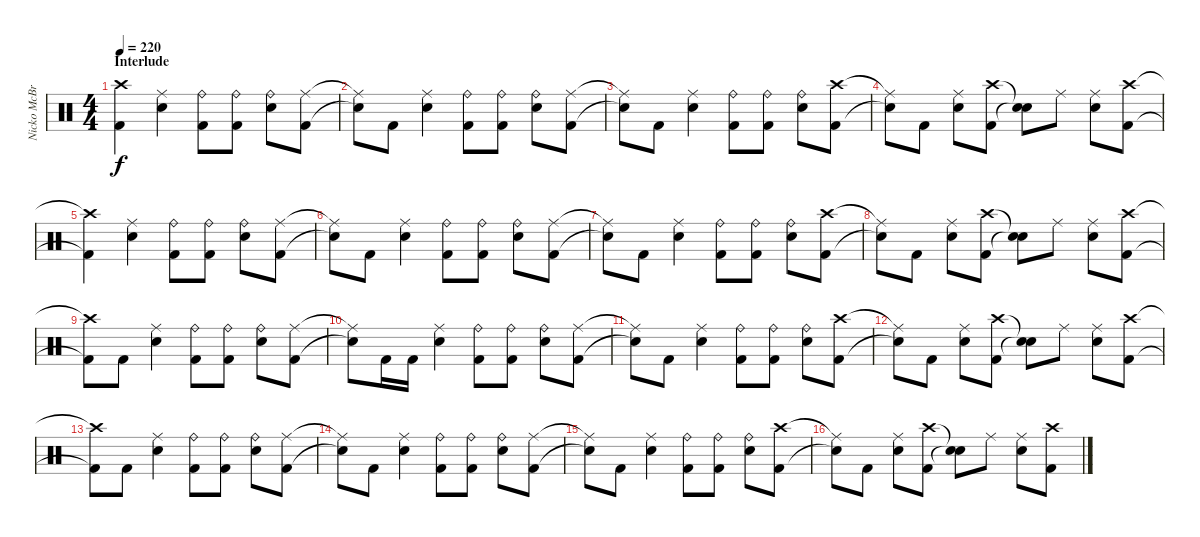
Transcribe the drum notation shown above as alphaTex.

\track ("Nicko McBrain" "Nicko McBr") {instrument percussion}
\staff {score}
\articulation defaults
\ts (4 4)
\section ("" "Interlude")
\tempo 220
\clef neutral
\ks c
("Crash high (hit)" "Kick (hit) 2").4{dy f} ("Ride (middle)" "Electric Snare (hit)").4 ("Ride (bell)" "Kick (hit) 2").8 ("Ride (bell)" "Kick (hit) 2").8 ("Ride (bell)" "Electric Snare (hit)").8 ("Ride (middle)" "Kick (hit) 2").8 |
("Ride (middle)"{t} "Snare (hit)"{t}).8 "Kick (hit) 2".8 ("Ride (middle)" "Electric Snare (hit)").4 ("Ride (bell)" "Kick (hit) 2").8 ("Ride (bell)" "Kick (hit) 2").8 ("Ride (bell)" "Electric Snare (hit)").8 ("Ride (middle)" "Kick (hit) 2").8 |
("Ride (middle)"{t} "Snare (hit)"{t}).8 "Kick (hit) 2".8 ("Ride (middle)" "Electric Snare (hit)").4 ("Ride (bell)" "Kick (hit) 2").8 ("Ride (bell)" "Kick (hit) 2").8 ("Ride (bell)" "Electric Snare (hit)").8 ("Crash high (hit)" "Kick (hit) 2").8 |
("Ride (middle)"{t} "Snare (hit)"{t}).8 "Kick (hit) 2".8 ("Ride (middle)" "Electric Snare (hit)").8 ("Crash high (hit)" "Kick (hit) 2").8 ("Snare (hit)"{t} "Snare (hit)"{t}).8 "Ride (middle)".8 ("Ride (middle)" "Electric Snare (hit)").8 ("Crash high (hit)" "Kick (hit) 2").8 |
("Crash high (hit)"{t} "Kick (hit) 2"{t}).4 ("Ride (middle)" "Electric Snare (hit)").4 ("Ride (bell)" "Kick (hit) 2").8 ("Ride (bell)" "Kick (hit) 2").8 ("Ride (bell)" "Electric Snare (hit)").8 ("Ride (middle)" "Kick (hit) 2").8 |
("Ride (middle)"{t} "Snare (hit)"{t}).8 "Kick (hit) 2".8 ("Ride (middle)" "Electric Snare (hit)").4 ("Ride (bell)" "Kick (hit) 2").8 ("Ride (bell)" "Kick (hit) 2").8 ("Ride (bell)" "Electric Snare (hit)").8 ("Ride (middle)" "Kick (hit) 2").8 |
("Ride (middle)"{t} "Snare (hit)"{t}).8 "Kick (hit) 2".8 ("Ride (middle)" "Electric Snare (hit)").4 ("Ride (bell)" "Kick (hit) 2").8 ("Ride (bell)" "Kick (hit) 2").8 ("Ride (bell)" "Electric Snare (hit)").8 ("Crash high (hit)" "Kick (hit) 2").8 |
("Ride (middle)"{t} "Snare (hit)"{t}).8 "Kick (hit) 2".8 ("Ride (middle)" "Electric Snare (hit)").8 ("Crash high (hit)" "Kick (hit) 2").8 ("Snare (hit)"{t} "Snare (hit)"{t}).8 "Ride (middle)".8 ("Ride (middle)" "Electric Snare (hit)").8 ("Crash high (hit)" "Kick (hit) 2").8 |
("Crash high (hit)"{t} "Kick (hit) 2"{t}).8 "Kick (hit) 2".8 ("Ride (middle)" "Electric Snare (hit)").4 ("Ride (bell)" "Kick (hit) 2").8 ("Ride (bell)" "Kick (hit) 2").8 ("Ride (bell)" "Electric Snare (hit)").8 ("Ride (middle)" "Kick (hit) 2").8 |
("Ride (middle)"{t} "Snare (hit)"{t}).8 "Kick (hit) 2".16 "Kick (hit) 2".16 ("Ride (middle)" "Electric Snare (hit)").4 ("Ride (bell)" "Kick (hit) 2").8 ("Ride (bell)" "Kick (hit) 2").8 ("Ride (bell)" "Electric Snare (hit)").8 ("Ride (middle)" "Kick (hit) 2").8 |
("Ride (middle)"{t} "Snare (hit)"{t}).8 "Kick (hit) 2".8 ("Ride (middle)" "Electric Snare (hit)").4 ("Ride (bell)" "Kick (hit) 2").8 ("Ride (bell)" "Kick (hit) 2").8 ("Ride (bell)" "Electric Snare (hit)").8 ("Crash high (hit)" "Kick (hit) 2").8 |
("Ride (middle)"{t} "Snare (hit)"{t}).8 "Kick (hit) 2".8 ("Ride (middle)" "Electric Snare (hit)").8 ("Crash high (hit)" "Kick (hit) 2").8 ("Snare (hit)"{t} "Snare (hit)"{t}).8 "Ride (middle)".8 ("Ride (middle)" "Electric Snare (hit)").8 ("Crash high (hit)" "Kick (hit) 2").8 |
("Crash high (hit)"{t} "Kick (hit) 2"{t}).8 "Kick (hit) 2".8 ("Ride (middle)" "Electric Snare (hit)").4 ("Ride (bell)" "Kick (hit) 2").8 ("Ride (bell)" "Kick (hit) 2").8 ("Ride (bell)" "Electric Snare (hit)").8 ("Ride (middle)" "Kick (hit) 2").8 |
("Ride (middle)"{t} "Snare (hit)"{t}).8 "Kick (hit) 2".8 ("Ride (middle)" "Electric Snare (hit)").4 ("Ride (bell)" "Kick (hit) 2").8 ("Ride (bell)" "Kick (hit) 2").8 ("Ride (bell)" "Electric Snare (hit)").8 ("Ride (middle)" "Kick (hit) 2").8 |
("Ride (middle)"{t} "Snare (hit)"{t}).8 "Kick (hit) 2".8 ("Ride (middle)" "Electric Snare (hit)").4 ("Ride (bell)" "Kick (hit) 2").8 ("Ride (bell)" "Kick (hit) 2").8 ("Ride (bell)" "Electric Snare (hit)").8 ("Crash high (hit)" "Kick (hit) 2").8 |
("Ride (middle)"{t} "Snare (hit)"{t}).8 "Kick (hit) 2".8 ("Ride (middle)" "Electric Snare (hit)").8 ("Crash high (hit)" "Kick (hit) 2").8 ("Snare (hit)"{t} "Snare (hit)"{t}).8 "Ride (middle)".8 ("Ride (middle)" "Electric Snare (hit)").8 ("Crash high (hit)" "Kick (hit) 2").8
